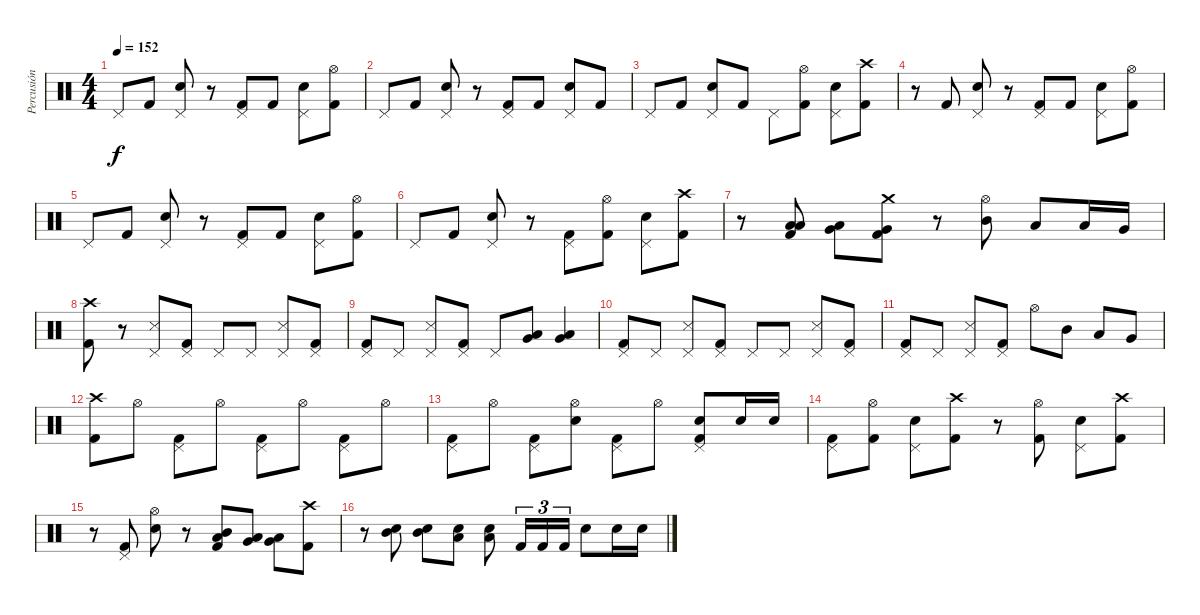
\track ("Percusión" "Percusión") {instrument percussion}
\staff {score}
\articulation defaults
\ts (4 4)
\tempo 152
\clef neutral
\ks c "Pedal Hi-Hat (hit)".8{dy f} "Kick (hit) 2".8
("Snare (hit) 2" "Pedal Hi-Hat (hit)").8 r.8 ("Kick (hit) 2" "Pedal Hi-Hat (hit)").8 "Kick (hit) 2".8 ("Snare (hit) 2" "Pedal Hi-Hat (hit)").8 ("Kick (hit) 2" "Hi-Hat (open)").8 |
"Pedal Hi-Hat (hit)".8 "Kick (hit) 2".8 ("Snare (hit) 2" "Pedal Hi-Hat (hit)").8 r.8 ("Kick (hit) 2" "Pedal Hi-Hat (hit)").8 "Kick (hit) 2".8 ("Snare (hit) 2" "Pedal Hi-Hat (hit)").8 "Kick (hit) 2".8 |
"Pedal Hi-Hat (hit)".8 "Kick (hit) 2".8 ("Snare (hit) 2" "Pedal Hi-Hat (hit)").8 "Kick (hit) 2".8 "Pedal Hi-Hat (hit)".8 ("Kick (hit) 2" "Hi-Hat (open)").8 ("Snare (hit) 2" "Pedal Hi-Hat (hit)").8 ("Kick (hit) 2" "Crash high (hit)").8 |
r.8 "Kick (hit) 2".8 ("Snare (hit) 2" "Pedal Hi-Hat (hit)").8 r.8 ("Kick (hit) 2" "Pedal Hi-Hat (hit)").8 "Kick (hit) 2".8 ("Snare (hit) 2" "Pedal Hi-Hat (hit)").8 ("Kick (hit) 2" "Hi-Hat (open)").8 |
"Pedal Hi-Hat (hit)".8 "Kick (hit) 2".8 ("Snare (hit) 2" "Pedal Hi-Hat (hit)").8 r.8 ("Kick (hit) 2" "Pedal Hi-Hat (hit)").8 "Kick (hit) 2".8 ("Snare (hit) 2" "Pedal Hi-Hat (hit)").8 ("Kick (hit) 2" "Hi-Hat (open)").8 |
"Pedal Hi-Hat (hit)".8 "Kick (hit) 2".8 ("Snare (hit) 2" "Pedal Hi-Hat (hit)").8 r.8 ("Kick (hit) 2" "Pedal Hi-Hat (hit)").8 ("Kick (hit) 2" "Hi-Hat (open)").8 ("Snare (hit) 2" "Pedal Hi-Hat (hit)").8 ("Kick (hit) 2" "Crash high (hit)").8 |
r.8 ("Kick (hit) 2" "Low Tom (hit)" "Low Floor Tom (hit)").8 ("Very Low Tom (hit)" "Low Floor Tom (hit)").8 ("Kick (hit) 2" "Very Low Tom (hit)" "Crash medium (hit)").8 r.8 ("Mid Tom (hit)" "Hi-Hat (open)").8 "Low Tom (hit)".8 "Low Tom (hit)".16 "Very Low Tom (hit)".16 |
("Kick (hit) 2" "Crash high (hit)").8 r.8 ("Pedal Hi-Hat (hit)" "Metronome (hit)").8 ("Kick (hit) 2" "Pedal Hi-Hat (hit)").8 "Pedal Hi-Hat (hit)".8 "Pedal Hi-Hat (hit)".8 ("Pedal Hi-Hat (hit)" "Metronome (hit)").8 ("Kick (hit) 2" "Pedal Hi-Hat (hit)").8 |
("Kick (hit) 2" "Pedal Hi-Hat (hit)").8 "Pedal Hi-Hat (hit)".8 ("Pedal Hi-Hat (hit)" "Metronome (hit)").8 ("Kick (hit) 2" "Pedal Hi-Hat (hit)").8 "Pedal Hi-Hat (hit)".8 ("Low Tom (hit)" "Very Low Tom (hit)").8 ("Very Low Tom (hit)" "Low Floor Tom (hit)").4 |
("Kick (hit) 2" "Pedal Hi-Hat (hit)").8 "Pedal Hi-Hat (hit)".8 ("Pedal Hi-Hat (hit)" "Metronome (hit)").8 ("Kick (hit) 2" "Pedal Hi-Hat (hit)").8 "Pedal Hi-Hat (hit)".8 "Pedal Hi-Hat (hit)".8 ("Pedal Hi-Hat (hit)" "Metronome (hit)").8 ("Kick (hit) 2" "Pedal Hi-Hat (hit)").8 |
("Kick (hit) 2" "Pedal Hi-Hat (hit)").8 "Pedal Hi-Hat (hit)".8 ("Pedal Hi-Hat (hit)" "Metronome (hit)").8 ("Kick (hit) 2" "Pedal Hi-Hat (hit)").8 "Hi-Hat (open)".8 "Mid Tom (hit)".8 "Low Tom (hit)".8 "Very Low Tom (hit)".8 |
("Kick (hit) 2" "Crash high (hit)").8 "Hi-Hat (open)".8 ("Kick (hit) 2" "Pedal Hi-Hat (hit)").8 "Hi-Hat (open)".8 ("Kick (hit) 2" "Pedal Hi-Hat (hit)").8 "Hi-Hat (open)".8 ("Kick (hit) 2" "Pedal Hi-Hat (hit)").8 "Hi-Hat (open)".8 |
("Kick (hit) 2" "Pedal Hi-Hat (hit)").8 "Hi-Hat (open)".8 ("Kick (hit) 2" "Pedal Hi-Hat (hit)").8 ("Hi-Hat (open)" "Snare (hit) 2").8 ("Kick (hit) 2" "Pedal Hi-Hat (hit)").8 "Hi-Hat (open)".8 ("Kick (hit) 2" "Pedal Hi-Hat (hit)" "Snare (hit) 2").8 "Snare (hit) 2".16 "Snare (hit) 2".16 |
("Kick (hit) 2" "Pedal Hi-Hat (hit)").8 ("Kick (hit) 2" "Hi-Hat (open)").8 ("Pedal Hi-Hat (hit)" "Snare (hit) 2").8 ("Kick (hit) 2" "Crash high (hit)").8 r.8 ("Kick (hit) 2" "Hi-Hat (open)").8 ("Pedal Hi-Hat (hit)" "Snare (hit) 2").8 ("Kick (hit) 2" "Crash high (hit)").8 |
r.8 ("Kick (hit) 2" "Pedal Hi-Hat (hit)").8 ("Hi-Hat (open)" "Snare (hit) 2").8 r.8 ("Kick (hit) 2" "Mid Tom (hit)" "Low Tom (hit)").8 ("Low Tom (hit)" "Very Low Tom (hit)").8 ("Very Low Tom (hit)" "Low Floor Tom (hit)").8 ("Kick (hit) 2" "Crash high (hit)").8 |
r.8 ("Snare (hit) 2" "Mid Tom (hit)").8 ("Snare (hit) 2" "Mid Tom (hit)").8 ("Snare (hit) 2" "Low Tom (hit)").8 ("Snare (hit) 2" "Low Tom (hit)").8 "Kick (hit) 2".16{tu (3 2)} "Kick (hit) 2".16{tu (3 2)} "Kick (hit) 2".16{tu (3 2)} "Snare (hit) 2".8 "Snare (hit) 2".16 "Snare (hit) 2".16
